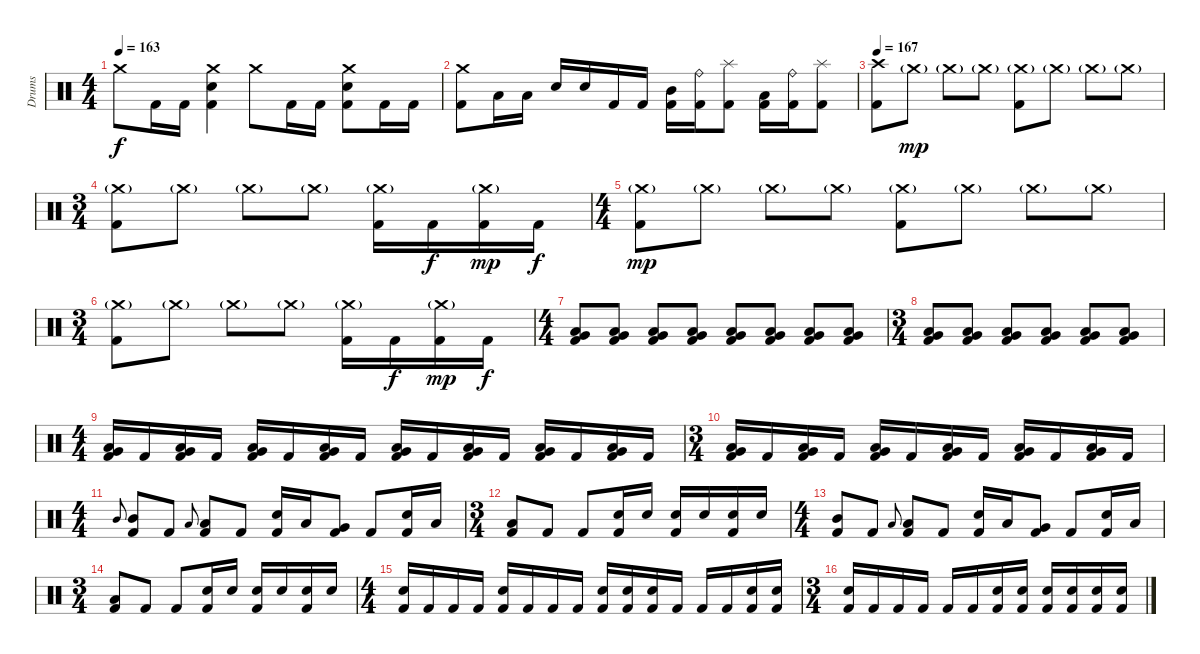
\track ("Drums" "Drums") {instrument percussion}
\staff {score}
\articulation defaults
\ts (4 4)
\tempo 163
\clef neutral
\ks c "Crash medium (hit)".8{dy f} "Kick (hit) 2".16 "Kick (hit) 2".16
("Crash medium (hit)" "Kick (hit) 2" "Electric Snare (hit)").4 "Crash medium (hit)".8 "Kick (hit) 2".16 "Kick (hit) 2".16 ("Crash medium (hit)" "Kick (hit) 2" "Electric Snare (hit)").8 "Kick (hit) 2".16 "Kick (hit) 2".16 |
("Crash medium (hit)" "Kick (hit) 2").8 "Low Tom (hit)".16 "Low Tom (hit)".16 "Electric Snare (hit)".16 "Electric Snare (hit)".16 "Kick (hit) 2".16 "Kick (hit) 2".16 ("Mid Tom (hit)" "Kick (hit) 2").16 ("Ride (bell)" "Kick (hit) 2").16 ("Splash (hit)" "Kick (hit) 2").8 ("Low Tom (hit)" "Kick (hit) 2").16 ("Ride (bell)" "Kick (hit) 2").16 ("Splash (hit)" "Kick (hit) 2").8 |
\tempo 167
("Crash high (hit)" "Kick (hit) 2").8 "Crash medium (hit)"{g}.8{dy mp} "Crash medium (hit)"{g}.8 "Crash medium (hit)"{g}.8 ("Crash medium (hit)"{g} "Kick (hit) 2").8 "Crash medium (hit)"{g}.8 "Crash medium (hit)"{g}.8 "Crash medium (hit)"{g}.8 |
\ts (3 4)
("Crash medium (hit)"{g} "Kick (hit) 2").8 "Crash medium (hit)"{g}.8 "Crash medium (hit)"{g}.8 "Crash medium (hit)"{g}.8 ("Crash medium (hit)"{g} "Kick (hit) 2").16 "Kick (hit) 2".16{dy f} ("Crash medium (hit)"{g} "Kick (hit) 2").16{dy mp} "Kick (hit) 2".16{dy f} |
\ts (4 4)
("Crash medium (hit)"{g} "Kick (hit) 2").8{dy mp} "Crash medium (hit)"{g}.8 "Crash medium (hit)"{g}.8 "Crash medium (hit)"{g}.8 ("Crash medium (hit)"{g} "Kick (hit) 2").8 "Crash medium (hit)"{g}.8 "Crash medium (hit)"{g}.8 "Crash medium (hit)"{g}.8 |
\ts (3 4)
("Crash medium (hit)"{g} "Kick (hit) 2").8 "Crash medium (hit)"{g}.8 "Crash medium (hit)"{g}.8 "Crash medium (hit)"{g}.8 ("Crash medium (hit)"{g} "Kick (hit) 2").16 "Kick (hit) 2".16{dy f} ("Crash medium (hit)"{g} "Kick (hit) 2").16{dy mp} "Kick (hit) 2".16{dy f} |
\ts (4 4)
("Low Tom (hit)" "Very Low Tom (hit)" "Kick (hit) 2").8 ("Low Tom (hit)" "Very Low Tom (hit)" "Kick (hit) 2").8 ("Low Tom (hit)" "Very Low Tom (hit)" "Kick (hit) 2").8 ("Low Tom (hit)" "Very Low Tom (hit)" "Kick (hit) 2").8 ("Low Tom (hit)" "Very Low Tom (hit)" "Kick (hit) 2").8 ("Low Tom (hit)" "Very Low Tom (hit)" "Kick (hit) 2").8 ("Low Tom (hit)" "Very Low Tom (hit)" "Kick (hit) 2").8 ("Low Tom (hit)" "Very Low Tom (hit)" "Kick (hit) 2").8 |
\ts (3 4)
("Low Tom (hit)" "Very Low Tom (hit)" "Kick (hit) 2").8 ("Low Tom (hit)" "Very Low Tom (hit)" "Kick (hit) 2").8 ("Low Tom (hit)" "Very Low Tom (hit)" "Kick (hit) 2").8 ("Low Tom (hit)" "Very Low Tom (hit)" "Kick (hit) 2").8 ("Low Tom (hit)" "Very Low Tom (hit)" "Kick (hit) 2").8 ("Low Tom (hit)" "Very Low Tom (hit)" "Kick (hit) 2").8 |
\ts (4 4)
("Low Tom (hit)" "Very Low Tom (hit)" "Kick (hit) 2").16 "Kick (hit) 2".16 ("Low Tom (hit)" "Very Low Tom (hit)" "Kick (hit) 2").16 "Kick (hit) 2".16 ("Low Tom (hit)" "Very Low Tom (hit)" "Kick (hit) 2").16 "Kick (hit) 2".16 ("Low Tom (hit)" "Very Low Tom (hit)" "Kick (hit) 2").16 "Kick (hit) 2".16 ("Low Tom (hit)" "Very Low Tom (hit)" "Kick (hit) 2").16 "Kick (hit) 2".16 ("Low Tom (hit)" "Very Low Tom (hit)" "Kick (hit) 2").16 "Kick (hit) 2".16 ("Low Tom (hit)" "Very Low Tom (hit)" "Kick (hit) 2").16 "Kick (hit) 2".16 ("Low Tom (hit)" "Very Low Tom (hit)" "Kick (hit) 2").16 "Kick (hit) 2".16 |
\ts (3 4)
("Low Tom (hit)" "Very Low Tom (hit)" "Kick (hit) 2").16 "Kick (hit) 2".16 ("Low Tom (hit)" "Very Low Tom (hit)" "Kick (hit) 2").16 "Kick (hit) 2".16 ("Low Tom (hit)" "Very Low Tom (hit)" "Kick (hit) 2").16 "Kick (hit) 2".16 ("Low Tom (hit)" "Very Low Tom (hit)" "Kick (hit) 2").16 "Kick (hit) 2".16 ("Low Tom (hit)" "Very Low Tom (hit)" "Kick (hit) 2").16 "Kick (hit) 2".16 ("Low Tom (hit)" "Very Low Tom (hit)" "Kick (hit) 2").16 "Kick (hit) 2".16 |
\ts (4 4)
"Mid Tom (hit)".8{gr onbeat} ("Mid Tom (hit)" "Kick (hit) 2").8 "Kick (hit) 2".8 "Low Tom (hit)".8{gr onbeat} ("Low Tom (hit)" "Kick (hit) 2").8 "Kick (hit) 2".8 ("Kick (hit) 2" "Electric Snare (hit)").16 "Low Tom (hit)".16 ("Very Low Tom (hit)" "Kick (hit) 2").8 "Kick (hit) 2".8 ("Kick (hit) 2" "Electric Snare (hit)").16 "Low Tom (hit)".16 |
\ts (3 4)
("Low Floor Tom (hit)" "Kick (hit) 2").8 "Kick (hit) 2".8 "Kick (hit) 2".8 ("Kick (hit) 2" "Electric Snare (hit)").16 "Electric Snare (hit)".16 ("Kick (hit) 2" "Electric Snare (hit)").16 "Electric Snare (hit)".16 ("Kick (hit) 2" "Electric Snare (hit)").16 "Electric Snare (hit)".16 |
\ts (4 4)
("Mid Tom (hit)" "Kick (hit) 2").8 "Kick (hit) 2".8 "Low Tom (hit)".8{gr onbeat} ("Low Tom (hit)" "Kick (hit) 2").8 "Kick (hit) 2".8 ("Kick (hit) 2" "Electric Snare (hit)").16 "Low Tom (hit)".16 ("Very Low Tom (hit)" "Kick (hit) 2").8 "Kick (hit) 2".8 ("Kick (hit) 2" "Electric Snare (hit)").16 "Low Tom (hit)".16 |
\ts (3 4)
("Low Floor Tom (hit)" "Kick (hit) 2").8 "Kick (hit) 2".8 "Kick (hit) 2".8 ("Kick (hit) 2" "Electric Snare (hit)").16 "Electric Snare (hit)".16 ("Kick (hit) 2" "Electric Snare (hit)").16 "Electric Snare (hit)".16 ("Kick (hit) 2" "Electric Snare (hit)").16 "Electric Snare (hit)".16 |
\ts (4 4)
("Kick (hit) 2" "Electric Snare (hit)").16 "Kick (hit) 2".16 "Kick (hit) 2".16 "Kick (hit) 2".16 ("Kick (hit) 2" "Electric Snare (hit)").16 "Kick (hit) 2".16 "Kick (hit) 2".16 "Kick (hit) 2".16 ("Kick (hit) 2" "Electric Snare (hit)").16 ("Kick (hit) 2" "Electric Snare (hit)").16 ("Kick (hit) 2" "Electric Snare (hit)").16 "Kick (hit) 2".16 "Kick (hit) 2".16 "Kick (hit) 2".16 ("Kick (hit) 2" "Electric Snare (hit)").16 ("Kick (hit) 2" "Electric Snare (hit)").16 |
\ts (3 4)
("Kick (hit) 2" "Electric Snare (hit)").16 "Kick (hit) 2".16 "Kick (hit) 2".16 "Kick (hit) 2".16 "Kick (hit) 2".16 "Kick (hit) 2".16 ("Kick (hit) 2" "Electric Snare (hit)").16 ("Kick (hit) 2" "Electric Snare (hit)").16 ("Kick (hit) 2" "Electric Snare (hit)").16 ("Kick (hit) 2" "Electric Snare (hit)").16 ("Kick (hit) 2" "Electric Snare (hit)").16 ("Kick (hit) 2" "Electric Snare (hit)").16
